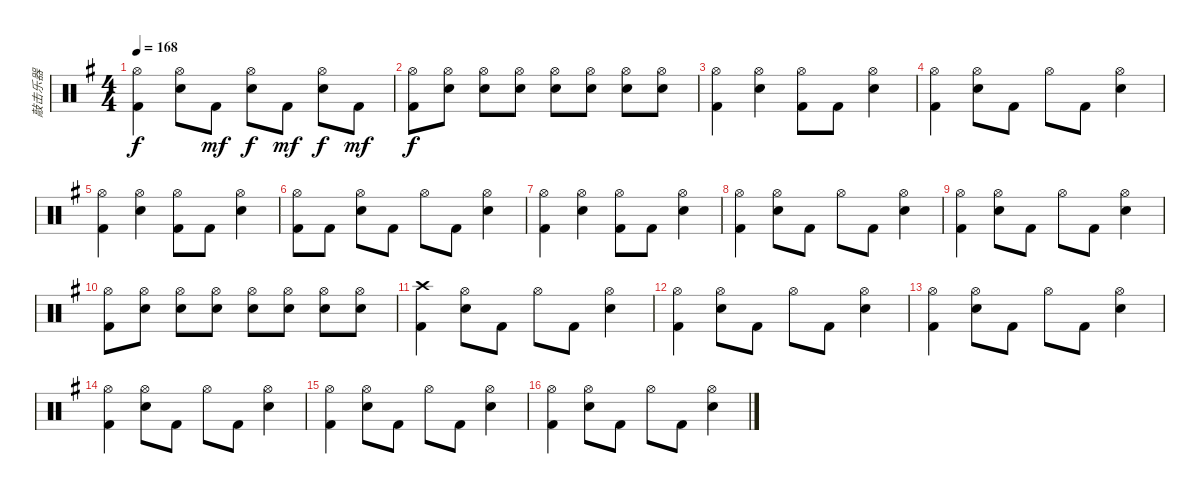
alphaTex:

\track ("敲击乐器" "敲击乐器") {instrument percussion}
\staff {score}
\articulation defaults
\ts (4 4)
\tempo 168
\clef neutral
\ks g
("Hi-Hat (open)" "Kick (hit) 2").4{dy f} ("Hi-Hat (open)" "Snare (hit) 2").8 "Kick (hit) 2".8{dy mf} ("Hi-Hat (open)" "Snare (hit) 2").8{dy f} "Kick (hit) 2".8{dy mf} ("Hi-Hat (open)" "Snare (hit) 2").8{dy f} "Kick (hit) 2".8{dy mf} |
("Hi-Hat (open)" "Kick (hit) 2").8{dy f} ("Hi-Hat (open)" "Snare (hit) 2").8 ("Hi-Hat (open)" "Snare (hit) 2").8 ("Hi-Hat (open)" "Snare (hit) 2").8 ("Hi-Hat (open)" "Snare (hit) 2").8 ("Hi-Hat (open)" "Snare (hit) 2").8 ("Hi-Hat (open)" "Snare (hit) 2").8 ("Hi-Hat (open)" "Snare (hit) 2").8 |
("Hi-Hat (open)" "Kick (hit) 2").4 ("Hi-Hat (open)" "Snare (hit) 2").4 ("Hi-Hat (open)" "Kick (hit) 2").8 "Kick (hit) 2".8 ("Hi-Hat (open)" "Snare (hit) 2").4 |
("Hi-Hat (open)" "Kick (hit) 2").4 ("Hi-Hat (open)" "Snare (hit) 2").8 "Kick (hit) 2".8 "Hi-Hat (open)".8 "Kick (hit) 2".8 ("Hi-Hat (open)" "Snare (hit) 2").4 |
("Hi-Hat (open)" "Kick (hit) 2").4 ("Hi-Hat (open)" "Snare (hit) 2").4 ("Hi-Hat (open)" "Kick (hit) 2").8 "Kick (hit) 2".8 ("Hi-Hat (open)" "Snare (hit) 2").4 |
("Hi-Hat (open)" "Kick (hit) 2").8 "Kick (hit) 2".8 ("Hi-Hat (open)" "Snare (hit) 2").8 "Kick (hit) 2".8 "Hi-Hat (open)".8 "Kick (hit) 2".8 ("Hi-Hat (open)" "Snare (hit) 2").4 |
("Hi-Hat (open)" "Kick (hit) 2").4 ("Hi-Hat (open)" "Snare (hit) 2").4 ("Hi-Hat (open)" "Kick (hit) 2").8 "Kick (hit) 2".8 ("Hi-Hat (open)" "Snare (hit) 2").4 |
("Hi-Hat (open)" "Kick (hit) 2").4 ("Hi-Hat (open)" "Snare (hit) 2").8 "Kick (hit) 2".8 "Hi-Hat (open)".8 "Kick (hit) 2".8 ("Hi-Hat (open)" "Snare (hit) 2").4 |
("Hi-Hat (open)" "Kick (hit) 2").4 ("Hi-Hat (open)" "Snare (hit) 2").8 "Kick (hit) 2".8 "Hi-Hat (open)".8 "Kick (hit) 2".8 ("Hi-Hat (open)" "Snare (hit) 2").4 |
("Hi-Hat (open)" "Kick (hit) 2").8 ("Hi-Hat (open)" "Snare (hit) 2").8 ("Hi-Hat (open)" "Snare (hit) 2").8 ("Hi-Hat (open)" "Snare (hit) 2").8 ("Hi-Hat (open)" "Snare (hit) 2").8 ("Hi-Hat (open)" "Snare (hit) 2").8 ("Hi-Hat (open)" "Snare (hit) 2").8 ("Hi-Hat (open)" "Snare (hit) 2").8 |
("Crash high (hit)" "Kick (hit) 2").4 ("Hi-Hat (open)" "Snare (hit) 2").8 "Kick (hit) 2".8 "Hi-Hat (open)".8 "Kick (hit) 2".8 ("Hi-Hat (open)" "Snare (hit) 2").4 |
("Hi-Hat (open)" "Kick (hit) 2").4 ("Hi-Hat (open)" "Snare (hit) 2").8 "Kick (hit) 2".8 "Hi-Hat (open)".8 "Kick (hit) 2".8 ("Hi-Hat (open)" "Snare (hit) 2").4 |
("Hi-Hat (open)" "Kick (hit) 2").4 ("Hi-Hat (open)" "Snare (hit) 2").8 "Kick (hit) 2".8 "Hi-Hat (open)".8 "Kick (hit) 2".8 ("Hi-Hat (open)" "Snare (hit) 2").4 |
("Hi-Hat (open)" "Kick (hit) 2").4 ("Hi-Hat (open)" "Snare (hit) 2").8 "Kick (hit) 2".8 "Hi-Hat (open)".8 "Kick (hit) 2".8 ("Hi-Hat (open)" "Snare (hit) 2").4 |
("Hi-Hat (open)" "Kick (hit) 2").4 ("Hi-Hat (open)" "Snare (hit) 2").8 "Kick (hit) 2".8 "Hi-Hat (open)".8 "Kick (hit) 2".8 ("Hi-Hat (open)" "Snare (hit) 2").4 |
("Hi-Hat (open)" "Kick (hit) 2").4 ("Hi-Hat (open)" "Snare (hit) 2").8 "Kick (hit) 2".8 "Hi-Hat (open)".8 "Kick (hit) 2".8 ("Hi-Hat (open)" "Snare (hit) 2").4
